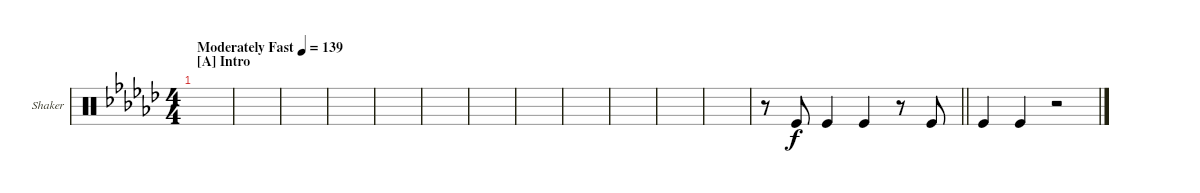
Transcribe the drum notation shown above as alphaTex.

\bracketExtendMode groupsimilarinstruments
\firstSystemTrackNameOrientation horizontal
\otherSystemsTrackNameOrientation horizontal
\defaultBarNumberDisplay FirstOfSystem
\track ("Shaker" "Shaker") {instrument percussion}
\staff {score}
\articulation defaults
\ts (4 4)
\beaming (8 2 2 2 2)
\section ("A" "Intro")
\tempo (139 "Moderately Fast")
\clef neutral
\ks gb
|
|
|
|
|
|
|
|
|
|
|
|
\barLineRight lightlight
r.8 "Kick (hit)".8 "Kick (hit)".4 "Kick (hit)".4 r.8 "Kick (hit)".8 |
"Kick (hit)".4 "Kick (hit)".4 r.2
